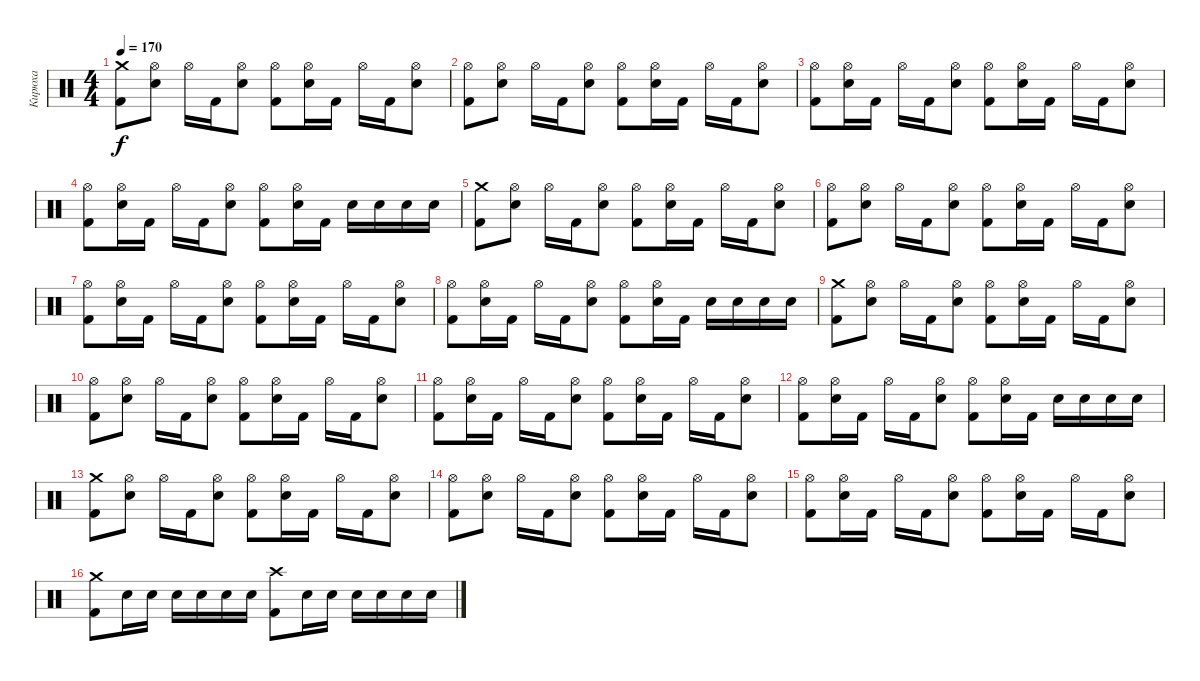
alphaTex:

\track ("Кирюха" "Кирюха") {instrument percussion}
\staff {score}
\articulation defaults
\ts (4 4)
\tempo 170
\clef neutral
\ks c
("Kick (hit) 2" "Crash medium (hit)").8{dy f} ("Electric Snare (hit)" "Hi-Hat (open)").8 "Hi-Hat (open)".16 "Kick (hit) 2".16 ("Electric Snare (hit)" "Hi-Hat (open)").8 ("Kick (hit) 2" "Hi-Hat (open)").8 ("Electric Snare (hit)" "Hi-Hat (open)").16 "Kick (hit) 2".16 "Hi-Hat (open)".16 "Kick (hit) 2".16 ("Electric Snare (hit)" "Hi-Hat (open)").8 |
("Kick (hit) 2" "Hi-Hat (open)").8 ("Electric Snare (hit)" "Hi-Hat (open)").8 "Hi-Hat (open)".16 "Kick (hit) 2".16 ("Electric Snare (hit)" "Hi-Hat (open)").8 ("Kick (hit) 2" "Hi-Hat (open)").8 ("Electric Snare (hit)" "Hi-Hat (open)").16 "Kick (hit) 2".16 "Hi-Hat (open)".16 "Kick (hit) 2".16 ("Electric Snare (hit)" "Hi-Hat (open)").8 |
("Kick (hit) 2" "Hi-Hat (open)").8 ("Electric Snare (hit)" "Hi-Hat (open)").16 "Kick (hit) 2".16 "Hi-Hat (open)".16 "Kick (hit) 2".16 ("Electric Snare (hit)" "Hi-Hat (open)").8 ("Kick (hit) 2" "Hi-Hat (open)").8 ("Electric Snare (hit)" "Hi-Hat (open)").16 "Kick (hit) 2".16 "Hi-Hat (open)".16 "Kick (hit) 2".16 ("Electric Snare (hit)" "Hi-Hat (open)").8 |
("Kick (hit) 2" "Hi-Hat (open)").8 ("Electric Snare (hit)" "Hi-Hat (open)").16 "Kick (hit) 2".16 "Hi-Hat (open)".16 "Kick (hit) 2".16 ("Electric Snare (hit)" "Hi-Hat (open)").8 ("Kick (hit) 2" "Hi-Hat (open)").8 ("Electric Snare (hit)" "Hi-Hat (open)").16 "Kick (hit) 2".16 "Electric Snare (hit)".16 "Electric Snare (hit)".16 "Electric Snare (hit)".16 "Electric Snare (hit)".16 |
("Kick (hit) 2" "Crash medium (hit)").8 ("Electric Snare (hit)" "Hi-Hat (open)").8 "Hi-Hat (open)".16 "Kick (hit) 2".16 ("Electric Snare (hit)" "Hi-Hat (open)").8 ("Kick (hit) 2" "Hi-Hat (open)").8 ("Electric Snare (hit)" "Hi-Hat (open)").16 "Kick (hit) 2".16 "Hi-Hat (open)".16 "Kick (hit) 2".16 ("Electric Snare (hit)" "Hi-Hat (open)").8 |
("Kick (hit) 2" "Hi-Hat (open)").8 ("Electric Snare (hit)" "Hi-Hat (open)").8 "Hi-Hat (open)".16 "Kick (hit) 2".16 ("Electric Snare (hit)" "Hi-Hat (open)").8 ("Kick (hit) 2" "Hi-Hat (open)").8 ("Electric Snare (hit)" "Hi-Hat (open)").16 "Kick (hit) 2".16 "Hi-Hat (open)".16 "Kick (hit) 2".16 ("Electric Snare (hit)" "Hi-Hat (open)").8 |
("Kick (hit) 2" "Hi-Hat (open)").8 ("Electric Snare (hit)" "Hi-Hat (open)").16 "Kick (hit) 2".16 "Hi-Hat (open)".16 "Kick (hit) 2".16 ("Electric Snare (hit)" "Hi-Hat (open)").8 ("Kick (hit) 2" "Hi-Hat (open)").8 ("Electric Snare (hit)" "Hi-Hat (open)").16 "Kick (hit) 2".16 "Hi-Hat (open)".16 "Kick (hit) 2".16 ("Electric Snare (hit)" "Hi-Hat (open)").8 |
("Kick (hit) 2" "Hi-Hat (open)").8 ("Electric Snare (hit)" "Hi-Hat (open)").16 "Kick (hit) 2".16 "Hi-Hat (open)".16 "Kick (hit) 2".16 ("Electric Snare (hit)" "Hi-Hat (open)").8 ("Kick (hit) 2" "Hi-Hat (open)").8 ("Electric Snare (hit)" "Hi-Hat (open)").16 "Kick (hit) 2".16 "Electric Snare (hit)".16 "Electric Snare (hit)".16 "Electric Snare (hit)".16 "Electric Snare (hit)".16 |
("Kick (hit) 2" "Crash medium (hit)").8 ("Electric Snare (hit)" "Hi-Hat (open)").8 "Hi-Hat (open)".16 "Kick (hit) 2".16 ("Electric Snare (hit)" "Hi-Hat (open)").8 ("Kick (hit) 2" "Hi-Hat (open)").8 ("Electric Snare (hit)" "Hi-Hat (open)").16 "Kick (hit) 2".16 "Hi-Hat (open)".16 "Kick (hit) 2".16 ("Electric Snare (hit)" "Hi-Hat (open)").8 |
("Kick (hit) 2" "Hi-Hat (open)").8 ("Electric Snare (hit)" "Hi-Hat (open)").8 "Hi-Hat (open)".16 "Kick (hit) 2".16 ("Electric Snare (hit)" "Hi-Hat (open)").8 ("Kick (hit) 2" "Hi-Hat (open)").8 ("Electric Snare (hit)" "Hi-Hat (open)").16 "Kick (hit) 2".16 "Hi-Hat (open)".16 "Kick (hit) 2".16 ("Electric Snare (hit)" "Hi-Hat (open)").8 |
("Kick (hit) 2" "Hi-Hat (open)").8 ("Electric Snare (hit)" "Hi-Hat (open)").16 "Kick (hit) 2".16 "Hi-Hat (open)".16 "Kick (hit) 2".16 ("Electric Snare (hit)" "Hi-Hat (open)").8 ("Kick (hit) 2" "Hi-Hat (open)").8 ("Electric Snare (hit)" "Hi-Hat (open)").16 "Kick (hit) 2".16 "Hi-Hat (open)".16 "Kick (hit) 2".16 ("Electric Snare (hit)" "Hi-Hat (open)").8 |
("Kick (hit) 2" "Hi-Hat (open)").8 ("Electric Snare (hit)" "Hi-Hat (open)").16 "Kick (hit) 2".16 "Hi-Hat (open)".16 "Kick (hit) 2".16 ("Electric Snare (hit)" "Hi-Hat (open)").8 ("Kick (hit) 2" "Hi-Hat (open)").8 ("Electric Snare (hit)" "Hi-Hat (open)").16 "Kick (hit) 2".16 "Electric Snare (hit)".16 "Electric Snare (hit)".16 "Electric Snare (hit)".16 "Electric Snare (hit)".16 |
("Kick (hit) 2" "Crash medium (hit)").8 ("Electric Snare (hit)" "Hi-Hat (open)").8 "Hi-Hat (open)".16 "Kick (hit) 2".16 ("Electric Snare (hit)" "Hi-Hat (open)").8 ("Kick (hit) 2" "Hi-Hat (open)").8 ("Electric Snare (hit)" "Hi-Hat (open)").16 "Kick (hit) 2".16 "Hi-Hat (open)".16 "Kick (hit) 2".16 ("Electric Snare (hit)" "Hi-Hat (open)").8 |
("Kick (hit) 2" "Hi-Hat (open)").8 ("Electric Snare (hit)" "Hi-Hat (open)").8 "Hi-Hat (open)".16 "Kick (hit) 2".16 ("Electric Snare (hit)" "Hi-Hat (open)").8 ("Kick (hit) 2" "Hi-Hat (open)").8 ("Electric Snare (hit)" "Hi-Hat (open)").16 "Kick (hit) 2".16 "Hi-Hat (open)".16 "Kick (hit) 2".16 ("Electric Snare (hit)" "Hi-Hat (open)").8 |
("Kick (hit) 2" "Hi-Hat (open)").8 ("Electric Snare (hit)" "Hi-Hat (open)").16 "Kick (hit) 2".16 "Hi-Hat (open)".16 "Kick (hit) 2".16 ("Electric Snare (hit)" "Hi-Hat (open)").8 ("Kick (hit) 2" "Hi-Hat (open)").8 ("Electric Snare (hit)" "Hi-Hat (open)").16 "Kick (hit) 2".16 "Hi-Hat (open)".16 "Kick (hit) 2".16 ("Electric Snare (hit)" "Hi-Hat (open)").8 |
("Kick (hit) 2" "Crash medium (hit)").8 "Electric Snare (hit)".16 "Electric Snare (hit)".16 "Electric Snare (hit)".16 "Electric Snare (hit)".16 "Electric Snare (hit)".16 "Electric Snare (hit)".16 ("Kick (hit) 2" "Crash high (hit)").8 "Electric Snare (hit)".16 "Electric Snare (hit)".16 "Electric Snare (hit)".16 "Electric Snare (hit)".16 "Electric Snare (hit)".16 "Electric Snare (hit)".16
